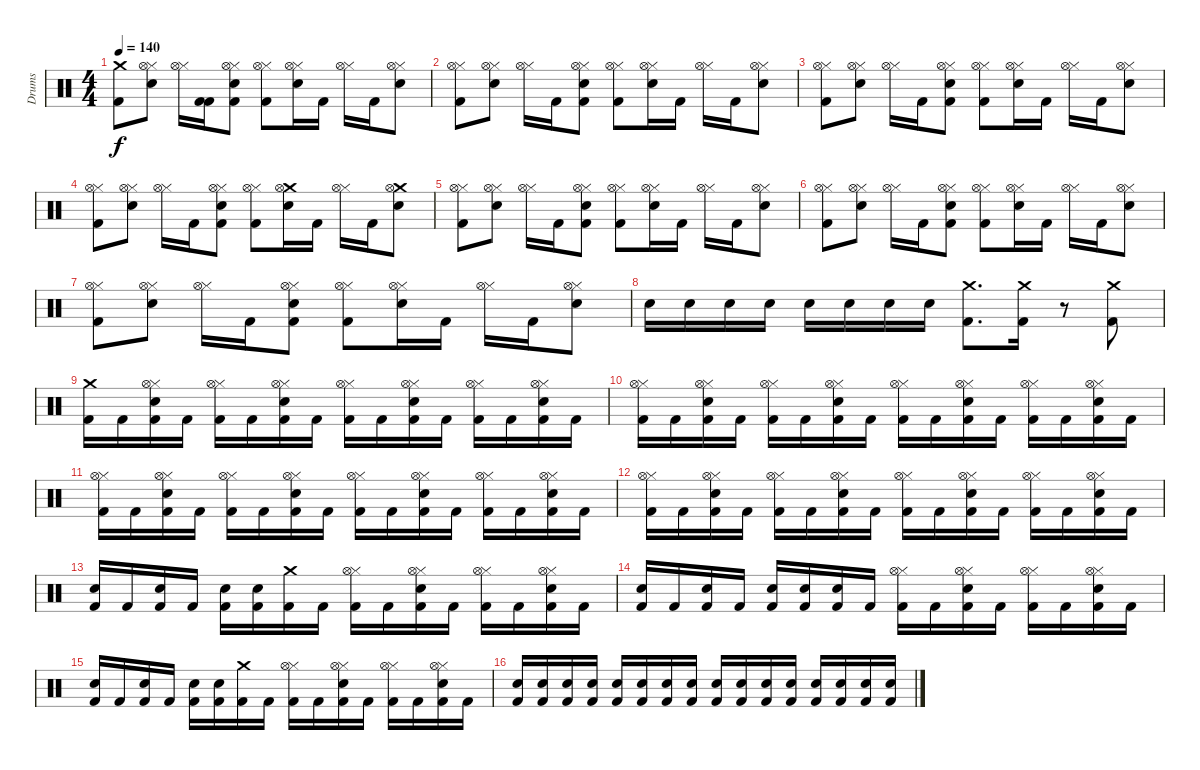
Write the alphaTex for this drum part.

\track ("Drums" "Drums") {instrument percussion}
\staff {score}
\articulation defaults
\ts (4 4)
\tempo 140
\clef neutral
\ks c
("Crash medium (hit)" "Kick (hit) 2").8{dy f} ("Hi-Hat (closed)" "Hi-Hat (open)" "Electric Snare (hit)").8 ("Hi-Hat (closed)" "Hi-Hat (open)").16 ("Kick (hit) 2" "Kick (hit) 2").16 ("Hi-Hat (closed)" "Hi-Hat (open)" "Electric Snare (hit)" "Kick (hit) 2").8 ("Hi-Hat (closed)" "Hi-Hat (open)" "Kick (hit) 2").8 ("Hi-Hat (closed)" "Hi-Hat (open)" "Electric Snare (hit)").16 "Kick (hit) 2".16 ("Hi-Hat (closed)" "Hi-Hat (open)").16 "Kick (hit) 2".16 ("Hi-Hat (closed)" "Hi-Hat (open)" "Electric Snare (hit)").8 |
("Hi-Hat (closed)" "Hi-Hat (open)" "Kick (hit) 2").8 ("Hi-Hat (closed)" "Hi-Hat (open)" "Electric Snare (hit)").8 ("Hi-Hat (closed)" "Hi-Hat (open)").16 "Kick (hit) 2".16 ("Hi-Hat (closed)" "Hi-Hat (open)" "Electric Snare (hit)" "Kick (hit) 2").8 ("Hi-Hat (closed)" "Hi-Hat (open)" "Kick (hit) 2").8 ("Hi-Hat (closed)" "Hi-Hat (open)" "Electric Snare (hit)").16 "Kick (hit) 2".16 ("Hi-Hat (closed)" "Hi-Hat (open)").16 "Kick (hit) 2".16 ("Hi-Hat (closed)" "Hi-Hat (open)" "Electric Snare (hit)").8 |
("Hi-Hat (closed)" "Hi-Hat (open)" "Kick (hit) 2").8 ("Hi-Hat (closed)" "Hi-Hat (open)" "Electric Snare (hit)").8 ("Hi-Hat (closed)" "Hi-Hat (open)").16 "Kick (hit) 2".16 ("Hi-Hat (closed)" "Hi-Hat (open)" "Electric Snare (hit)" "Kick (hit) 2").8 ("Hi-Hat (closed)" "Hi-Hat (open)" "Kick (hit) 2").8 ("Hi-Hat (closed)" "Hi-Hat (open)" "Electric Snare (hit)").16 "Kick (hit) 2".16 ("Hi-Hat (closed)" "Hi-Hat (open)").16 "Kick (hit) 2".16 ("Hi-Hat (closed)" "Hi-Hat (open)" "Electric Snare (hit)").8 |
("Hi-Hat (closed)" "Hi-Hat (open)" "Kick (hit) 2").8 ("Hi-Hat (closed)" "Hi-Hat (open)" "Electric Snare (hit)").8 ("Hi-Hat (closed)" "Hi-Hat (open)").16 "Kick (hit) 2".16 ("Hi-Hat (closed)" "Hi-Hat (open)" "Electric Snare (hit)" "Kick (hit) 2").8 ("Hi-Hat (closed)" "Hi-Hat (open)" "Kick (hit) 2").8 ("Crash medium (hit)" "Hi-Hat (open)" "Electric Snare (hit)").16 "Kick (hit) 2".16 ("Hi-Hat (closed)" "Hi-Hat (open)").16 "Kick (hit) 2".16 ("Crash medium (hit)" "Hi-Hat (open)" "Electric Snare (hit)").8 |
("Hi-Hat (closed)" "Hi-Hat (open)" "Kick (hit) 2").8 ("Hi-Hat (closed)" "Hi-Hat (open)" "Electric Snare (hit)").8 ("Hi-Hat (closed)" "Hi-Hat (open)").16 "Kick (hit) 2".16 ("Hi-Hat (closed)" "Hi-Hat (open)" "Electric Snare (hit)" "Kick (hit) 2").8 ("Hi-Hat (closed)" "Hi-Hat (open)" "Kick (hit) 2").8 ("Hi-Hat (closed)" "Hi-Hat (open)" "Electric Snare (hit)").16 "Kick (hit) 2".16 ("Hi-Hat (closed)" "Hi-Hat (open)").16 "Kick (hit) 2".16 ("Hi-Hat (closed)" "Hi-Hat (open)" "Electric Snare (hit)").8 |
("Hi-Hat (closed)" "Hi-Hat (open)" "Kick (hit) 2").8 ("Hi-Hat (closed)" "Hi-Hat (open)" "Electric Snare (hit)").8 ("Hi-Hat (closed)" "Hi-Hat (open)").16 "Kick (hit) 2".16 ("Hi-Hat (closed)" "Hi-Hat (open)" "Electric Snare (hit)" "Kick (hit) 2").8 ("Hi-Hat (closed)" "Hi-Hat (open)" "Kick (hit) 2").8 ("Hi-Hat (closed)" "Hi-Hat (open)" "Electric Snare (hit)").16 "Kick (hit) 2".16 ("Hi-Hat (closed)" "Hi-Hat (open)").16 "Kick (hit) 2".16 ("Hi-Hat (closed)" "Hi-Hat (open)" "Electric Snare (hit)").8 |
("Hi-Hat (closed)" "Hi-Hat (open)" "Kick (hit) 2").8 ("Hi-Hat (closed)" "Hi-Hat (open)" "Electric Snare (hit)").8 ("Hi-Hat (closed)" "Hi-Hat (open)").16 "Kick (hit) 2".16 ("Hi-Hat (closed)" "Hi-Hat (open)" "Electric Snare (hit)" "Kick (hit) 2").8 ("Hi-Hat (closed)" "Hi-Hat (open)" "Kick (hit) 2").8 ("Hi-Hat (closed)" "Hi-Hat (open)" "Electric Snare (hit)").16 "Kick (hit) 2".16 ("Hi-Hat (closed)" "Hi-Hat (open)").16 "Kick (hit) 2".16 ("Hi-Hat (closed)" "Hi-Hat (open)" "Electric Snare (hit)").8 |
"Electric Snare (hit)".16 "Electric Snare (hit)".16 "Electric Snare (hit)".16 "Electric Snare (hit)".16 "Electric Snare (hit)".16 "Electric Snare (hit)".16 "Electric Snare (hit)".16 "Electric Snare (hit)".16 ("Crash medium (hit)" "Kick (hit) 2").8{d} ("Crash medium (hit)" "Kick (hit) 2").16 r.8 ("Crash medium (hit)" "Kick (hit) 2").8 |
("Crash medium (hit)" "Kick (hit) 2").16 "Kick (hit) 2".16 ("Hi-Hat (closed)" "Hi-Hat (open)" "Electric Snare (hit)" "Kick (hit) 2").16 "Kick (hit) 2".16 ("Hi-Hat (closed)" "Hi-Hat (open)" "Kick (hit) 2").16 "Kick (hit) 2".16 ("Hi-Hat (closed)" "Hi-Hat (open)" "Electric Snare (hit)" "Kick (hit) 2").16 "Kick (hit) 2".16 ("Hi-Hat (closed)" "Hi-Hat (open)" "Kick (hit) 2").16 "Kick (hit) 2".16 ("Hi-Hat (closed)" "Hi-Hat (open)" "Electric Snare (hit)" "Kick (hit) 2").16 "Kick (hit) 2".16 ("Hi-Hat (closed)" "Hi-Hat (open)" "Kick (hit) 2").16 "Kick (hit) 2".16 ("Hi-Hat (closed)" "Hi-Hat (open)" "Electric Snare (hit)" "Kick (hit) 2").16 "Kick (hit) 2".16 |
("Hi-Hat (closed)" "Hi-Hat (open)" "Kick (hit) 2").16 "Kick (hit) 2".16 ("Hi-Hat (closed)" "Hi-Hat (open)" "Electric Snare (hit)" "Kick (hit) 2").16 "Kick (hit) 2".16 ("Hi-Hat (closed)" "Hi-Hat (open)" "Kick (hit) 2").16 "Kick (hit) 2".16 ("Hi-Hat (closed)" "Hi-Hat (open)" "Electric Snare (hit)" "Kick (hit) 2").16 "Kick (hit) 2".16 ("Hi-Hat (closed)" "Hi-Hat (open)" "Kick (hit) 2").16 "Kick (hit) 2".16 ("Hi-Hat (closed)" "Hi-Hat (open)" "Electric Snare (hit)" "Kick (hit) 2").16 "Kick (hit) 2".16 ("Hi-Hat (closed)" "Hi-Hat (open)" "Kick (hit) 2").16 "Kick (hit) 2".16 ("Hi-Hat (closed)" "Hi-Hat (open)" "Electric Snare (hit)" "Kick (hit) 2").16 "Kick (hit) 2".16 |
("Hi-Hat (closed)" "Hi-Hat (open)" "Kick (hit) 2").16 "Kick (hit) 2".16 ("Hi-Hat (closed)" "Hi-Hat (open)" "Electric Snare (hit)" "Kick (hit) 2").16 "Kick (hit) 2".16 ("Hi-Hat (closed)" "Hi-Hat (open)" "Kick (hit) 2").16 "Kick (hit) 2".16 ("Hi-Hat (closed)" "Hi-Hat (open)" "Electric Snare (hit)" "Kick (hit) 2").16 "Kick (hit) 2".16 ("Hi-Hat (closed)" "Hi-Hat (open)" "Kick (hit) 2").16 "Kick (hit) 2".16 ("Hi-Hat (closed)" "Hi-Hat (open)" "Electric Snare (hit)" "Kick (hit) 2").16 "Kick (hit) 2".16 ("Hi-Hat (closed)" "Hi-Hat (open)" "Kick (hit) 2").16 "Kick (hit) 2".16 ("Hi-Hat (closed)" "Hi-Hat (open)" "Electric Snare (hit)" "Kick (hit) 2").16 "Kick (hit) 2".16 |
("Hi-Hat (closed)" "Hi-Hat (open)" "Kick (hit) 2").16 "Kick (hit) 2".16 ("Hi-Hat (closed)" "Hi-Hat (open)" "Electric Snare (hit)" "Kick (hit) 2").16 "Kick (hit) 2".16 ("Hi-Hat (closed)" "Hi-Hat (open)" "Kick (hit) 2").16 "Kick (hit) 2".16 ("Hi-Hat (closed)" "Hi-Hat (open)" "Electric Snare (hit)" "Kick (hit) 2").16 "Kick (hit) 2".16 ("Hi-Hat (closed)" "Hi-Hat (open)" "Kick (hit) 2").16 "Kick (hit) 2".16 ("Hi-Hat (closed)" "Hi-Hat (open)" "Electric Snare (hit)" "Kick (hit) 2").16 "Kick (hit) 2".16 ("Hi-Hat (closed)" "Hi-Hat (open)" "Kick (hit) 2").16 "Kick (hit) 2".16 ("Hi-Hat (closed)" "Hi-Hat (open)" "Electric Snare (hit)" "Kick (hit) 2").16 "Kick (hit) 2".16 |
("Electric Snare (hit)" "Kick (hit) 2").16 "Kick (hit) 2".16 ("Electric Snare (hit)" "Kick (hit) 2").16 "Kick (hit) 2".16 ("Electric Snare (hit)" "Kick (hit) 2").16 ("Electric Snare (hit)" "Kick (hit) 2").16 ("Crash medium (hit)" "Kick (hit) 2").16 "Kick (hit) 2".16 ("Hi-Hat (closed)" "Hi-Hat (open)" "Kick (hit) 2").16 "Kick (hit) 2".16 ("Hi-Hat (closed)" "Hi-Hat (open)" "Electric Snare (hit)" "Kick (hit) 2").16 "Kick (hit) 2".16 ("Hi-Hat (closed)" "Hi-Hat (open)" "Kick (hit) 2").16 "Kick (hit) 2".16 ("Hi-Hat (closed)" "Hi-Hat (open)" "Electric Snare (hit)" "Kick (hit) 2").16 "Kick (hit) 2".16 |
("Electric Snare (hit)" "Kick (hit) 2").16 "Kick (hit) 2".16 ("Electric Snare (hit)" "Kick (hit) 2").16 "Kick (hit) 2".16 ("Electric Snare (hit)" "Kick (hit) 2").16 ("Electric Snare (hit)" "Kick (hit) 2").16 ("Electric Snare (hit)" "Kick (hit) 2").16 "Kick (hit) 2".16 ("Hi-Hat (closed)" "Hi-Hat (open)" "Kick (hit) 2").16 "Kick (hit) 2".16 ("Hi-Hat (closed)" "Hi-Hat (open)" "Electric Snare (hit)" "Kick (hit) 2").16 "Kick (hit) 2".16 ("Hi-Hat (closed)" "Hi-Hat (open)" "Kick (hit) 2").16 "Kick (hit) 2".16 ("Hi-Hat (closed)" "Hi-Hat (open)" "Electric Snare (hit)" "Kick (hit) 2").16 "Kick (hit) 2".16 |
("Electric Snare (hit)" "Kick (hit) 2").16 "Kick (hit) 2".16 ("Electric Snare (hit)" "Kick (hit) 2").16 "Kick (hit) 2".16 ("Electric Snare (hit)" "Kick (hit) 2").16 ("Electric Snare (hit)" "Kick (hit) 2").16 ("Crash medium (hit)" "Kick (hit) 2").16 "Kick (hit) 2".16 ("Hi-Hat (closed)" "Hi-Hat (open)" "Kick (hit) 2").16 "Kick (hit) 2".16 ("Hi-Hat (closed)" "Hi-Hat (open)" "Electric Snare (hit)" "Kick (hit) 2").16 "Kick (hit) 2".16 ("Hi-Hat (closed)" "Hi-Hat (open)" "Kick (hit) 2").16 "Kick (hit) 2".16 ("Hi-Hat (closed)" "Hi-Hat (open)" "Electric Snare (hit)" "Kick (hit) 2").16 "Kick (hit) 2".16 |
("Electric Snare (hit)" "Kick (hit) 2").16 ("Electric Snare (hit)" "Kick (hit) 2").16 ("Electric Snare (hit)" "Kick (hit) 2").16 ("Electric Snare (hit)" "Kick (hit) 2").16 ("Electric Snare (hit)" "Kick (hit) 2").16 ("Electric Snare (hit)" "Kick (hit) 2").16 ("Electric Snare (hit)" "Kick (hit) 2").16 ("Electric Snare (hit)" "Kick (hit) 2").16 ("Electric Snare (hit)" "Kick (hit) 2").16 ("Electric Snare (hit)" "Kick (hit) 2").16 ("Electric Snare (hit)" "Kick (hit) 2").16 ("Electric Snare (hit)" "Kick (hit) 2").16 ("Electric Snare (hit)" "Kick (hit) 2").16 ("Electric Snare (hit)" "Kick (hit) 2").16 ("Electric Snare (hit)" "Kick (hit) 2").16 ("Electric Snare (hit)" "Kick (hit) 2").16
